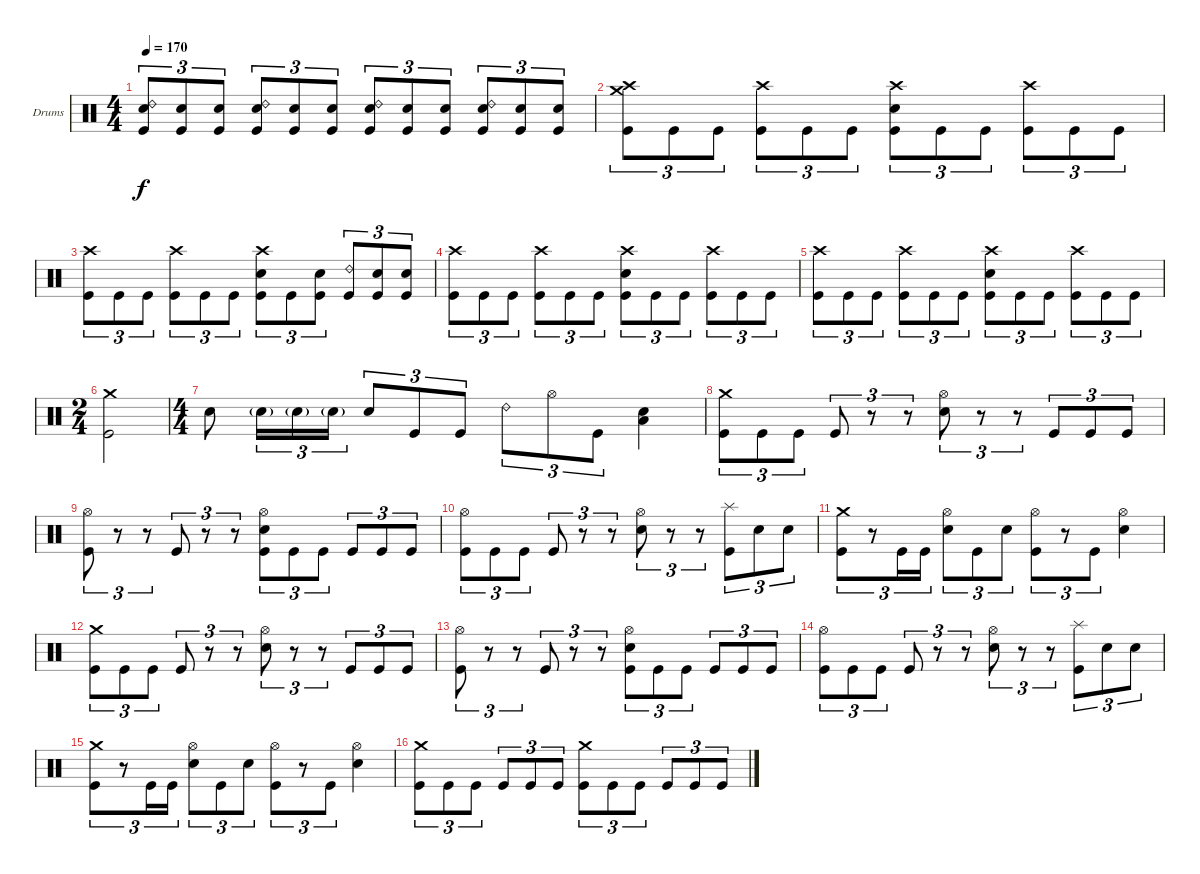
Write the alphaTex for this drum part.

\bracketExtendMode groupsimilarinstruments
\firstSystemTrackNameOrientation horizontal
\otherSystemsTrackNameOrientation horizontal
\track ("Drumkit" "Drums") {instrument percussion}
\staff {score}
\articulation defaults
\ts (4 4)
\tempo 170
\clef neutral
\ks c
("Ride (bell) 2" "Snare (hit) 2" "Kick (hit)").8{tu (3 2) dy f} ("Snare (hit) 2" "Kick (hit)").8{tu (3 2)} ("Snare (hit) 2" "Kick (hit)").8{tu (3 2)} ("Ride (bell) 2" "Snare (hit) 2" "Kick (hit)").8{tu (3 2)} ("Snare (hit) 2" "Kick (hit)").8{tu (3 2)} ("Snare (hit) 2" "Kick (hit)").8{tu (3 2)} ("Ride (bell) 2" "Snare (hit) 2" "Kick (hit)").8{tu (3 2)} ("Snare (hit) 2" "Kick (hit)").8{tu (3 2)} ("Snare (hit) 2" "Kick (hit)").8{tu (3 2)} ("Ride (bell) 2" "Snare (hit) 2" "Kick (hit)").8{tu (3 2)} ("Snare (hit) 2" "Kick (hit)").8{tu (3 2)} ("Snare (hit) 2" "Kick (hit)").8{tu (3 2)} |
("Crash medium (hit)" "Crash high (hit)" "Kick (hit)").8{tu (3 2)} "Kick (hit)".8{tu (3 2)} "Kick (hit)".8{tu (3 2)} ("Crash high (hit)" "Kick (hit)").8{tu (3 2)} "Kick (hit)".8{tu (3 2)} "Kick (hit)".8{tu (3 2)} ("Crash high (hit)" "Snare (hit) 2" "Kick (hit)").8{tu (3 2)} "Kick (hit)".8{tu (3 2)} "Kick (hit)".8{tu (3 2)} ("Crash high (hit)" "Kick (hit)").8{tu (3 2)} "Kick (hit)".8{tu (3 2)} "Kick (hit)".8{tu (3 2)} |
("Crash high (hit)" "Kick (hit)").8{tu (3 2)} "Kick (hit)".8{tu (3 2)} "Kick (hit)".8{tu (3 2)} ("Crash high (hit)" "Kick (hit)").8{tu (3 2)} "Kick (hit)".8{tu (3 2)} "Kick (hit)".8{tu (3 2)} ("Crash high (hit)" "Snare (hit) 2" "Kick (hit)").8{tu (3 2)} "Kick (hit)".8{tu (3 2)} ("Snare (hit) 2" "Kick (hit)").8{tu (3 2)} ("Ride (bell) 2" "Kick (hit)").8{tu (3 2)} ("Snare (hit) 2" "Kick (hit)").8{tu (3 2)} ("Snare (hit) 2" "Kick (hit)").8{tu (3 2)} |
("Crash high (hit)" "Kick (hit)").8{tu (3 2)} "Kick (hit)".8{tu (3 2)} "Kick (hit)".8{tu (3 2)} ("Crash high (hit)" "Kick (hit)").8{tu (3 2)} "Kick (hit)".8{tu (3 2)} "Kick (hit)".8{tu (3 2)} ("Crash high (hit)" "Snare (hit) 2" "Kick (hit)").8{tu (3 2)} "Kick (hit)".8{tu (3 2)} "Kick (hit)".8{tu (3 2)} ("Crash high (hit)" "Kick (hit)").8{tu (3 2)} "Kick (hit)".8{tu (3 2)} "Kick (hit)".8{tu (3 2)} |
("Crash high (hit)" "Kick (hit)").8{tu (3 2)} "Kick (hit)".8{tu (3 2)} "Kick (hit)".8{tu (3 2)} ("Crash high (hit)" "Kick (hit)").8{tu (3 2)} "Kick (hit)".8{tu (3 2)} "Kick (hit)".8{tu (3 2)} ("Crash high (hit)" "Snare (hit) 2" "Kick (hit)").8{tu (3 2)} "Kick (hit)".8{tu (3 2)} "Kick (hit)".8{tu (3 2)} ("Crash high (hit)" "Kick (hit)").8{tu (3 2)} "Kick (hit)".8{tu (3 2)} "Kick (hit)".8{tu (3 2)} |
\ts (2 4)
("Crash medium (hit)" "Kick (hit)").2 |
\ts (4 4)
"Snare (hit) 2".8 "Snare (hit) 2"{g}.16{tu (3 2)} "Snare (hit) 2"{g}.16{tu (3 2)} "Snare (hit) 2"{g}.16{tu (3 2)} "Snare (hit) 2".8{tu (3 2)} "Kick (hit)".8{tu (3 2)} "Kick (hit)".8{tu (3 2)} "Ride (bell) 2".8{tu (3 2)} "Hi-Hat (open)".8{tu (3 2)} "Kick (hit)".8{tu (3 2)} ("Low Tom (hit)" "Snare (hit) 2").4 |
("Crash medium (hit)" "Kick (hit)").8{tu (3 2)} "Kick (hit)".8{tu (3 2)} "Kick (hit)".8{tu (3 2)} "Kick (hit)".8{tu (3 2)} r.8{tu (3 2)} r.8{tu (3 2)} ("Hi-Hat (open)" "Snare (hit) 2").8{tu (3 2)} r.8{tu (3 2)} r.8{tu (3 2)} "Kick (hit)".8{tu (3 2)} "Kick (hit)".8{tu (3 2)} "Kick (hit)".8{tu (3 2)} |
("Hi-Hat (open)" "Kick (hit)").8{tu (3 2)} r.8{tu (3 2)} r.8{tu (3 2)} "Kick (hit)".8{tu (3 2)} r.8{tu (3 2)} r.8{tu (3 2)} ("Hi-Hat (open)" "Snare (hit) 2" "Kick (hit)").8{tu (3 2)} "Kick (hit)".8{tu (3 2)} "Kick (hit)".8{tu (3 2)} "Kick (hit)".8{tu (3 2)} "Kick (hit)".8{tu (3 2)} "Kick (hit)".8{tu (3 2)} |
("Hi-Hat (open)" "Kick (hit)").8{tu (3 2)} "Kick (hit)".8{tu (3 2)} "Kick (hit)".8{tu (3 2)} "Kick (hit)".8{tu (3 2)} r.8{tu (3 2)} r.8{tu (3 2)} ("Hi-Hat (open)" "Snare (hit) 2").8{tu (3 2)} r.8{tu (3 2)} r.8{tu (3 2)} ("Splash (hit)" "Kick (hit)").8{tu (3 2)} "Snare (hit) 2".8{tu (3 2)} "Snare (hit) 2".8{tu (3 2)} |
("Crash medium (hit)" "Kick (hit)").8{tu (3 2)} r.8{tu (3 2)} "Kick (hit)".16{tu (3 2)} "Kick (hit)".16{tu (3 2)} ("Hi-Hat (open)" "Snare (hit) 2").8{tu (3 2)} "Kick (hit)".8{tu (3 2)} "Snare (hit) 2".8{tu (3 2)} ("Hi-Hat (open)" "Kick (hit)").8{tu (3 2)} r.8{tu (3 2)} "Kick (hit)".8{tu (3 2)} ("Hi-Hat (open)" "Snare (hit) 2").4 |
("Crash medium (hit)" "Kick (hit)").8{tu (3 2)} "Kick (hit)".8{tu (3 2)} "Kick (hit)".8{tu (3 2)} "Kick (hit)".8{tu (3 2)} r.8{tu (3 2)} r.8{tu (3 2)} ("Hi-Hat (open)" "Snare (hit) 2").8{tu (3 2)} r.8{tu (3 2)} r.8{tu (3 2)} "Kick (hit)".8{tu (3 2)} "Kick (hit)".8{tu (3 2)} "Kick (hit)".8{tu (3 2)} |
("Hi-Hat (open)" "Kick (hit)").8{tu (3 2)} r.8{tu (3 2)} r.8{tu (3 2)} "Kick (hit)".8{tu (3 2)} r.8{tu (3 2)} r.8{tu (3 2)} ("Hi-Hat (open)" "Snare (hit) 2" "Kick (hit)").8{tu (3 2)} "Kick (hit)".8{tu (3 2)} "Kick (hit)".8{tu (3 2)} "Kick (hit)".8{tu (3 2)} "Kick (hit)".8{tu (3 2)} "Kick (hit)".8{tu (3 2)} |
("Hi-Hat (open)" "Kick (hit)").8{tu (3 2)} "Kick (hit)".8{tu (3 2)} "Kick (hit)".8{tu (3 2)} "Kick (hit)".8{tu (3 2)} r.8{tu (3 2)} r.8{tu (3 2)} ("Hi-Hat (open)" "Snare (hit) 2").8{tu (3 2)} r.8{tu (3 2)} r.8{tu (3 2)} ("Splash (hit)" "Kick (hit)").8{tu (3 2)} "Snare (hit) 2".8{tu (3 2)} "Snare (hit) 2".8{tu (3 2)} |
("Crash medium (hit)" "Kick (hit)").8{tu (3 2)} r.8{tu (3 2)} "Kick (hit)".16{tu (3 2)} "Kick (hit)".16{tu (3 2)} ("Hi-Hat (open)" "Snare (hit) 2").8{tu (3 2)} "Kick (hit)".8{tu (3 2)} "Snare (hit) 2".8{tu (3 2)} ("Hi-Hat (open)" "Kick (hit)").8{tu (3 2)} r.8{tu (3 2)} "Kick (hit)".8{tu (3 2)} ("Hi-Hat (open)" "Snare (hit) 2").4 |
("Crash medium (hit)" "Kick (hit)").8{tu (3 2)} "Kick (hit)".8{tu (3 2)} "Kick (hit)".8{tu (3 2)} "Kick (hit)".8{tu (3 2)} "Kick (hit)".8{tu (3 2)} "Kick (hit)".8{tu (3 2)} ("Crash medium (hit)" "Kick (hit)").8{tu (3 2)} "Kick (hit)".8{tu (3 2)} "Kick (hit)".8{tu (3 2)} "Kick (hit)".8{tu (3 2)} "Kick (hit)".8{tu (3 2)} "Kick (hit)".8{tu (3 2)}
